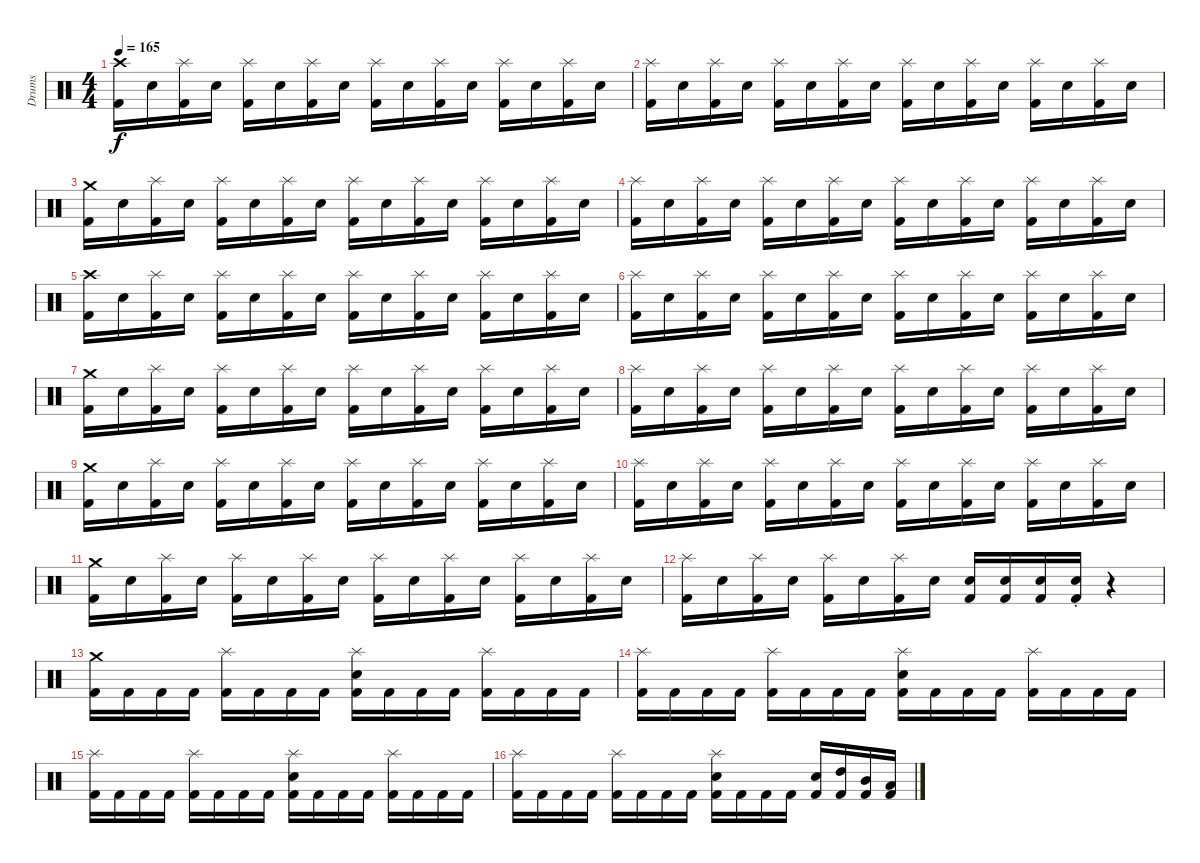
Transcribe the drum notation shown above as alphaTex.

\track ("Drums" "Drums") {instrument percussion}
\staff {score}
\articulation defaults
\ts (4 4)
\tempo 165
\clef neutral
\ks c
("Crash high (hit)" "Kick (hit) 2").16{dy f} "Snare (hit) 2".16 ("Splash (hit)" "Kick (hit) 2").16 "Snare (hit) 2".16 ("Splash (hit)" "Kick (hit) 2").16 "Snare (hit) 2".16 ("Splash (hit)" "Kick (hit) 2").16 "Snare (hit) 2".16 ("Splash (hit)" "Kick (hit) 2").16 "Snare (hit) 2".16 ("Splash (hit)" "Kick (hit) 2").16 "Snare (hit) 2".16 ("Splash (hit)" "Kick (hit) 2").16 "Snare (hit) 2".16 ("Splash (hit)" "Kick (hit) 2").16 "Snare (hit) 2".16 |
("Splash (hit)" "Kick (hit) 2").16 "Snare (hit) 2".16 ("Splash (hit)" "Kick (hit) 2").16 "Snare (hit) 2".16 ("Splash (hit)" "Kick (hit) 2").16 "Snare (hit) 2".16 ("Splash (hit)" "Kick (hit) 2").16 "Snare (hit) 2".16 ("Splash (hit)" "Kick (hit) 2").16 "Snare (hit) 2".16 ("Splash (hit)" "Kick (hit) 2").16 "Snare (hit) 2".16 ("Splash (hit)" "Kick (hit) 2").16 "Snare (hit) 2".16 ("Splash (hit)" "Kick (hit) 2").16 "Snare (hit) 2".16 |
("Crash medium (hit)" "Kick (hit) 2").16 "Snare (hit) 2".16 ("Splash (hit)" "Kick (hit) 2").16 "Snare (hit) 2".16 ("Splash (hit)" "Kick (hit) 2").16 "Snare (hit) 2".16 ("Splash (hit)" "Kick (hit) 2").16 "Snare (hit) 2".16 ("Splash (hit)" "Kick (hit) 2").16 "Snare (hit) 2".16 ("Splash (hit)" "Kick (hit) 2").16 "Snare (hit) 2".16 ("Splash (hit)" "Kick (hit) 2").16 "Snare (hit) 2".16 ("Splash (hit)" "Kick (hit) 2").16 "Snare (hit) 2".16 |
("Splash (hit)" "Kick (hit) 2").16 "Snare (hit) 2".16 ("Splash (hit)" "Kick (hit) 2").16 "Snare (hit) 2".16 ("Splash (hit)" "Kick (hit) 2").16 "Snare (hit) 2".16 ("Splash (hit)" "Kick (hit) 2").16 "Snare (hit) 2".16 ("Splash (hit)" "Kick (hit) 2").16 "Snare (hit) 2".16 ("Splash (hit)" "Kick (hit) 2").16 "Snare (hit) 2".16 ("Splash (hit)" "Kick (hit) 2").16 "Snare (hit) 2".16 ("Splash (hit)" "Kick (hit) 2").16 "Snare (hit) 2".16 |
("Crash high (hit)" "Kick (hit) 2").16 "Snare (hit) 2".16 ("Splash (hit)" "Kick (hit) 2").16 "Snare (hit) 2".16 ("Splash (hit)" "Kick (hit) 2").16 "Snare (hit) 2".16 ("Splash (hit)" "Kick (hit) 2").16 "Snare (hit) 2".16 ("Splash (hit)" "Kick (hit) 2").16 "Snare (hit) 2".16 ("Splash (hit)" "Kick (hit) 2").16 "Snare (hit) 2".16 ("Splash (hit)" "Kick (hit) 2").16 "Snare (hit) 2".16 ("Splash (hit)" "Kick (hit) 2").16 "Snare (hit) 2".16 |
("Splash (hit)" "Kick (hit) 2").16 "Snare (hit) 2".16 ("Splash (hit)" "Kick (hit) 2").16 "Snare (hit) 2".16 ("Splash (hit)" "Kick (hit) 2").16 "Snare (hit) 2".16 ("Splash (hit)" "Kick (hit) 2").16 "Snare (hit) 2".16 ("Splash (hit)" "Kick (hit) 2").16 "Snare (hit) 2".16 ("Splash (hit)" "Kick (hit) 2").16 "Snare (hit) 2".16 ("Splash (hit)" "Kick (hit) 2").16 "Snare (hit) 2".16 ("Splash (hit)" "Kick (hit) 2").16 "Snare (hit) 2".16 |
("Crash medium (hit)" "Kick (hit) 2").16 "Snare (hit) 2".16 ("Splash (hit)" "Kick (hit) 2").16 "Snare (hit) 2".16 ("Splash (hit)" "Kick (hit) 2").16 "Snare (hit) 2".16 ("Splash (hit)" "Kick (hit) 2").16 "Snare (hit) 2".16 ("Splash (hit)" "Kick (hit) 2").16 "Snare (hit) 2".16 ("Splash (hit)" "Kick (hit) 2").16 "Snare (hit) 2".16 ("Splash (hit)" "Kick (hit) 2").16 "Snare (hit) 2".16 ("Splash (hit)" "Kick (hit) 2").16 "Snare (hit) 2".16 |
("Splash (hit)" "Kick (hit) 2").16 "Snare (hit) 2".16 ("Splash (hit)" "Kick (hit) 2").16 "Snare (hit) 2".16 ("Splash (hit)" "Kick (hit) 2").16 "Snare (hit) 2".16 ("Splash (hit)" "Kick (hit) 2").16 "Snare (hit) 2".16 ("Splash (hit)" "Kick (hit) 2").16 "Snare (hit) 2".16 ("Splash (hit)" "Kick (hit) 2").16 "Snare (hit) 2".16 ("Splash (hit)" "Kick (hit) 2").16 "Snare (hit) 2".16 ("Splash (hit)" "Kick (hit) 2").16 "Snare (hit) 2".16 |
("Crash medium (hit)" "Kick (hit) 2").16 "Snare (hit) 2".16 ("Splash (hit)" "Kick (hit) 2").16 "Snare (hit) 2".16 ("Splash (hit)" "Kick (hit) 2").16 "Snare (hit) 2".16 ("Splash (hit)" "Kick (hit) 2").16 "Snare (hit) 2".16 ("Splash (hit)" "Kick (hit) 2").16 "Snare (hit) 2".16 ("Splash (hit)" "Kick (hit) 2").16 "Snare (hit) 2".16 ("Splash (hit)" "Kick (hit) 2").16 "Snare (hit) 2".16 ("Splash (hit)" "Kick (hit) 2").16 "Snare (hit) 2".16 |
("Splash (hit)" "Kick (hit) 2").16 "Snare (hit) 2".16 ("Splash (hit)" "Kick (hit) 2").16 "Snare (hit) 2".16 ("Splash (hit)" "Kick (hit) 2").16 "Snare (hit) 2".16 ("Splash (hit)" "Kick (hit) 2").16 "Snare (hit) 2".16 ("Splash (hit)" "Kick (hit) 2").16 "Snare (hit) 2".16 ("Splash (hit)" "Kick (hit) 2").16 "Snare (hit) 2".16 ("Splash (hit)" "Kick (hit) 2").16 "Snare (hit) 2".16 ("Splash (hit)" "Kick (hit) 2").16 "Snare (hit) 2".16 |
("Crash medium (hit)" "Kick (hit) 2").16 "Snare (hit) 2".16 ("Splash (hit)" "Kick (hit) 2").16 "Snare (hit) 2".16 ("Splash (hit)" "Kick (hit) 2").16 "Snare (hit) 2".16 ("Splash (hit)" "Kick (hit) 2").16 "Snare (hit) 2".16 ("Splash (hit)" "Kick (hit) 2").16 "Snare (hit) 2".16 ("Splash (hit)" "Kick (hit) 2").16 "Snare (hit) 2".16 ("Splash (hit)" "Kick (hit) 2").16 "Snare (hit) 2".16 ("Splash (hit)" "Kick (hit) 2").16 "Snare (hit) 2".16 |
("Splash (hit)" "Kick (hit) 2").16 "Snare (hit) 2".16 ("Splash (hit)" "Kick (hit) 2").16 "Snare (hit) 2".16 ("Splash (hit)" "Kick (hit) 2").16 "Snare (hit) 2".16 ("Splash (hit)" "Kick (hit) 2").16 "Snare (hit) 2".16 ("Snare (hit) 2" "Kick (hit) 2").16 ("Snare (hit) 2" "Kick (hit) 2").16 ("Snare (hit) 2" "Kick (hit) 2").16 ("Snare (hit) 2"{st} "Kick (hit) 2"{st}).16 r.4 |
("Crash medium (hit)" "Kick (hit) 2").16 "Kick (hit) 2".16 "Kick (hit) 2".16 "Kick (hit) 2".16 ("Splash (hit)" "Kick (hit) 2").16 "Kick (hit) 2".16 "Kick (hit) 2".16 "Kick (hit) 2".16 ("Splash (hit)" "Snare (hit) 2" "Kick (hit) 2").16 "Kick (hit) 2".16 "Kick (hit) 2".16 "Kick (hit) 2".16 ("Splash (hit)" "Kick (hit) 2").16 "Kick (hit) 2".16 "Kick (hit) 2".16 "Kick (hit) 2".16 |
("Splash (hit)" "Kick (hit) 2").16 "Kick (hit) 2".16 "Kick (hit) 2".16 "Kick (hit) 2".16 ("Splash (hit)" "Kick (hit) 2").16 "Kick (hit) 2".16 "Kick (hit) 2".16 "Kick (hit) 2".16 ("Splash (hit)" "Snare (hit) 2" "Kick (hit) 2").16 "Kick (hit) 2".16 "Kick (hit) 2".16 "Kick (hit) 2".16 ("Splash (hit)" "Kick (hit) 2").16 "Kick (hit) 2".16 "Kick (hit) 2".16 "Kick (hit) 2".16 |
("Splash (hit)" "Kick (hit) 2").16 "Kick (hit) 2".16 "Kick (hit) 2".16 "Kick (hit) 2".16 ("Splash (hit)" "Kick (hit) 2").16 "Kick (hit) 2".16 "Kick (hit) 2".16 "Kick (hit) 2".16 ("Splash (hit)" "Snare (hit) 2" "Kick (hit) 2").16 "Kick (hit) 2".16 "Kick (hit) 2".16 "Kick (hit) 2".16 ("Splash (hit)" "Kick (hit) 2").16 "Kick (hit) 2".16 "Kick (hit) 2".16 "Kick (hit) 2".16 |
("Splash (hit)" "Kick (hit) 2").16 "Kick (hit) 2".16 "Kick (hit) 2".16 "Kick (hit) 2".16 ("Splash (hit)" "Kick (hit) 2").16 "Kick (hit) 2".16 "Kick (hit) 2".16 "Kick (hit) 2".16 ("Splash (hit)" "Snare (hit) 2" "Kick (hit) 2").16 "Kick (hit) 2".16 "Kick (hit) 2".16 "Kick (hit) 2".16 ("Snare (hit) 2" "Kick (hit) 2").16 ("High Tom (hit)" "Kick (hit) 2").16 ("Mid Tom (hit)" "Kick (hit) 2").16 ("Low Tom (hit)" "Kick (hit) 2").16
